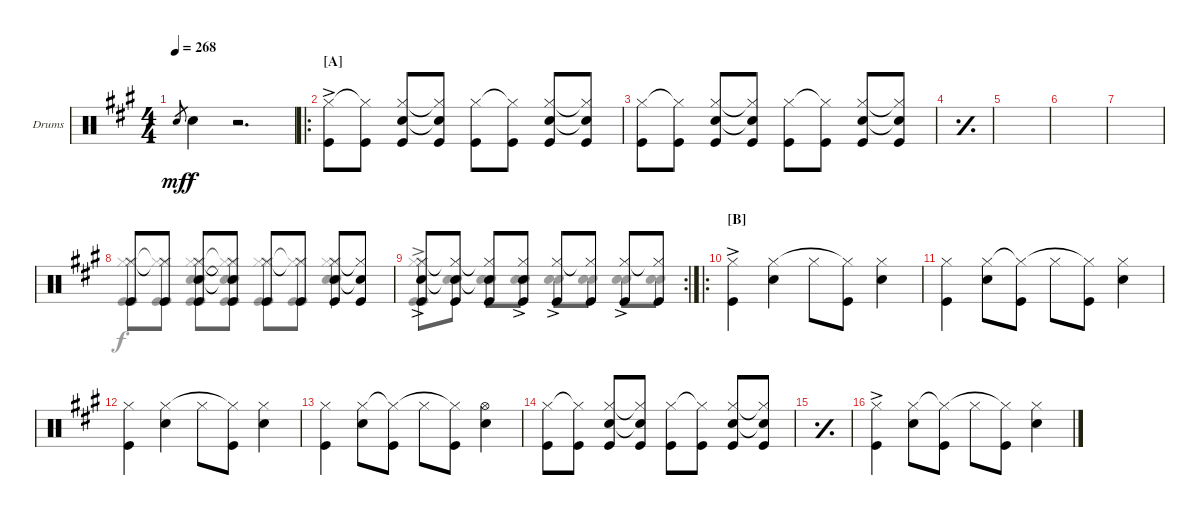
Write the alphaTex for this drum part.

\defaultSystemsLayout 4
\bracketExtendMode groupsimilarinstruments
\firstSystemTrackNameOrientation horizontal
\otherSystemsTrackNameOrientation horizontal
\track ("Stefan Kaufmann" "Drums") {instrument percussion}
\staff {score}
\articulation defaults
\voice
\ts (4 4)
\tempo 268
\clef neutral
\ks a "Snare (hit) 2".8{gr dy mf} "Snare (hit) 2".4{dy f}
r.2{d} |
\ro
\section ("A" "")
("Hi-Hat (closed)"{ac} "Kick (hit)"{ac}).8 ("Hi-Hat (closed)"{t} "Kick (hit)").8 ("Hi-Hat (closed)" "Snare (hit) 2" "Kick (hit)").8 ("Hi-Hat (closed)"{t} "Snare (hit) 2"{t} "Kick (hit)").8 ("Hi-Hat (closed)" "Kick (hit)").8 ("Hi-Hat (closed)"{t} "Kick (hit)").8 ("Hi-Hat (closed)" "Snare (hit) 2" "Kick (hit)").8 ("Hi-Hat (closed)"{t} "Snare (hit) 2"{t} "Kick (hit)").8 |
("Hi-Hat (closed)" "Kick (hit)").8 ("Hi-Hat (closed)"{t} "Kick (hit)").8 ("Hi-Hat (closed)" "Snare (hit) 2" "Kick (hit)").8 ("Hi-Hat (closed)"{t} "Snare (hit) 2"{t} "Kick (hit)").8 ("Hi-Hat (closed)" "Kick (hit)").8 ("Hi-Hat (closed)"{t} "Kick (hit)").8 ("Hi-Hat (closed)" "Snare (hit) 2" "Kick (hit)").8 ("Hi-Hat (closed)"{t} "Snare (hit) 2"{t} "Kick (hit)").8 |
\simile simple
|
|
|
|
\simile none
("Hi-Hat (closed)" "Kick (hit)").8 ("Hi-Hat (closed)"{t} "Kick (hit)").8 ("Hi-Hat (closed)" "Snare (hit) 2" "Kick (hit)").8 ("Hi-Hat (closed)"{t} "Snare (hit) 2"{t} "Kick (hit)").8 ("Hi-Hat (closed)" "Kick (hit)").8 ("Hi-Hat (closed)"{t} "Kick (hit)").8 ("Hi-Hat (closed)" "Snare (hit) 2" "Kick (hit)").8 ("Hi-Hat (closed)"{t} "Snare (hit) 2"{t} "Kick (hit)").8 |
\rc 2
("Kick (hit)" "Snare (hit) 2" "Hi-Hat (closed)"{ac}).8 ("Kick (hit)" "Snare (hit) 2"{t} "Hi-Hat (closed)"{t}).8 ("Kick (hit)" "Snare (hit) 2"{t} "Hi-Hat (closed)"{t}).8 ("Kick (hit)" "Snare (hit) 2" "Hi-Hat (closed)"{ac}).8 ("Kick (hit)" "Hi-Hat (closed)"{ac}).8 ("Kick (hit)" "Hi-Hat (closed)"{t}).8 ("Kick (hit)" "Hi-Hat (closed)"{ac}).8 ("Kick (hit)" "Hi-Hat (closed)"{t}).8 |
\ro
\section ("B" "")
("Hi-Hat (closed)" "Kick (hit)"{ac}).4 ("Snare (hit) 2" "Hi-Hat (closed)").4 "Hi-Hat (closed)".8 ("Kick (hit)" "Hi-Hat (closed)"{t}).8 ("Snare (hit) 2" "Hi-Hat (closed)").4 |
("Kick (hit)" "Hi-Hat (closed)").4 ("Snare (hit) 2" "Hi-Hat (closed)").8 ("Kick (hit)" "Hi-Hat (closed)"{t}).8 "Hi-Hat (closed)".8 ("Kick (hit)" "Hi-Hat (closed)"{t}).8 ("Snare (hit) 2" "Hi-Hat (closed)").4 |
("Kick (hit)" "Hi-Hat (closed)").4 ("Snare (hit) 2" "Hi-Hat (closed)").4 "Hi-Hat (closed)".8 ("Kick (hit)" "Hi-Hat (closed)"{t}).8 ("Snare (hit) 2" "Hi-Hat (closed)").4 |
("Kick (hit)" "Hi-Hat (closed)").4 ("Snare (hit) 2" "Hi-Hat (closed)").8 ("Kick (hit)" "Hi-Hat (closed)"{t}).8 "Hi-Hat (closed)".8 ("Kick (hit)" "Hi-Hat (closed)"{t}).8 ("Snare (hit) 2" "Hi-Hat (open)").4 |
("Kick (hit)" "Hi-Hat (closed)").8 ("Kick (hit)" "Hi-Hat (closed)"{t}).8 ("Kick (hit)" "Snare (hit) 2" "Hi-Hat (closed)").8 ("Kick (hit)" "Snare (hit) 2"{t} "Hi-Hat (closed)"{t}).8 ("Kick (hit)" "Hi-Hat (closed)").8 ("Kick (hit)" "Hi-Hat (closed)"{t}).8 ("Kick (hit)" "Snare (hit) 2" "Hi-Hat (closed)").8 ("Kick (hit)" "Snare (hit) 2"{t} "Hi-Hat (closed)"{t}).8 |
\simile simple
|
\simile none
("Kick (hit)" "Hi-Hat (closed)"{ac}).4 ("Snare (hit) 2" "Hi-Hat (closed)").8 ("Kick (hit)" "Hi-Hat (closed)"{t}).8 "Hi-Hat (closed)".8 ("Kick (hit)" "Hi-Hat (closed)"{t}).8 ("Snare (hit) 2" "Hi-Hat (closed)").4
\voice
\clef neutral
\ottava regular
\simile none
\ks a
|
|
|
\simile simple
|
|
|
|
\simile none
("Hi-Hat (closed)" "Kick (hit)").8 ("Hi-Hat (closed)"{t} "Kick (hit)").8 ("Hi-Hat (closed)" "Snare (hit) 2" "Kick (hit)").8 ("Hi-Hat (closed)"{t} "Snare (hit) 2"{t} "Kick (hit)").8 ("Hi-Hat (closed)" "Kick (hit)").8 ("Hi-Hat (closed)"{t} "Kick (hit)").8 ("Hi-Hat (closed)" "Snare (hit) 2").4 |
("Hi-Hat (closed)"{ac} "Kick (hit)").8 "Snare (hit) 2".8 "Snare (hit) 2".8 "Snare (hit) 2".8 "Snare (hit) 2".8 "Snare (hit) 2".8 "Snare (hit) 2".8 "Snare (hit) 2".8 |
|
|
|
|
|
\simile simple
|
\simile none
\voice
\clef neutral
\ottava regular
\simile none
\ks a
|
|
|
\simile simple
|
|
|
|
\simile none
("Hi-Hat (closed)" "Kick (hit)").8 ("Hi-Hat (closed)"{t} "Kick (hit)").8 ("Hi-Hat (closed)" "Snare (hit) 2" "Kick (hit)").8 ("Hi-Hat (closed)"{t} "Snare (hit) 2"{t} "Kick (hit)").8 ("Hi-Hat (closed)" "Kick (hit)").8 ("Hi-Hat (closed)"{t} "Kick (hit)").8 ("Hi-Hat (closed)" "Snare (hit) 2").4 |
("Hi-Hat (closed)"{ac} "Kick (hit)").8 "Snare (hit) 2".8 "Snare (hit) 2".8 "Snare (hit) 2".8 "Snare (hit) 2".8 "Snare (hit) 2".8 "Snare (hit) 2".8 "Snare (hit) 2".8 |
|
|
|
|
|
\simile simple
|
\simile none
